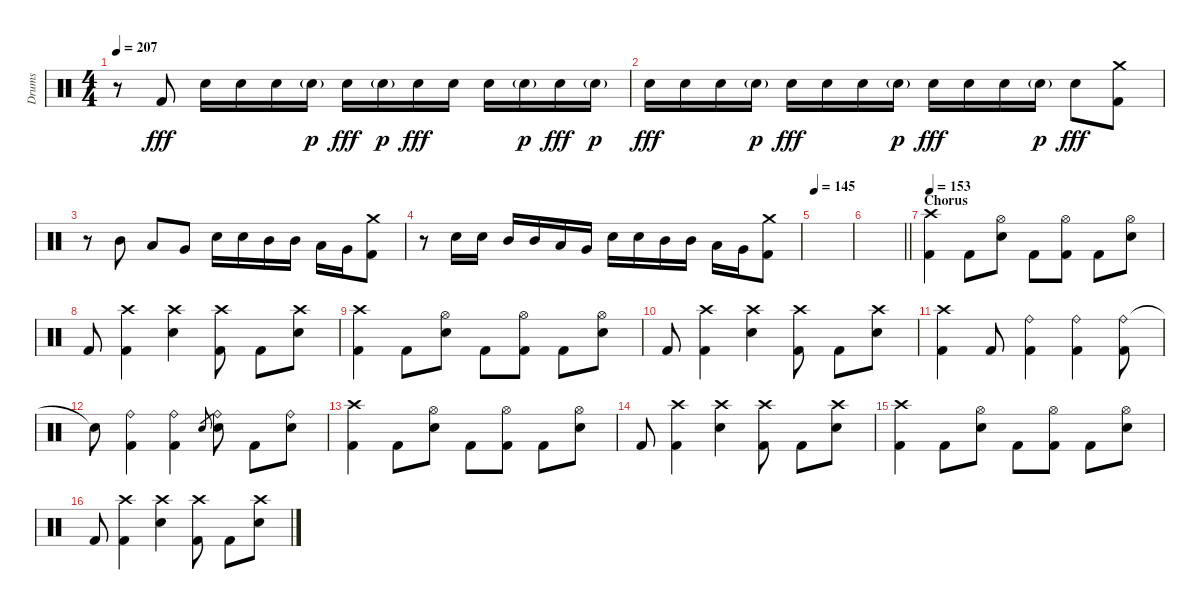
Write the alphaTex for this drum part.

\track ("Drums" "Drums") {instrument percussion}
\staff {score}
\articulation defaults
\ts (4 4)
\tempo 207
\clef neutral
\ks c
r.8{dy fff} "Kick (hit) 2".8 "Electric Snare (hit)".16 "Electric Snare (hit)".16 "Electric Snare (hit)".16 "Electric Snare (hit)"{g}.16{dy p} "Electric Snare (hit)".16{dy fff} "Electric Snare (hit)"{g}.16{dy p} "Electric Snare (hit)".16{dy fff} "Electric Snare (hit)".16 "Electric Snare (hit)".16 "Electric Snare (hit)"{g}.16{dy p} "Electric Snare (hit)".16{dy fff} "Electric Snare (hit)"{g}.16{dy p} |
"Electric Snare (hit)".16{dy fff} "Electric Snare (hit)".16 "Electric Snare (hit)".16 "Electric Snare (hit)"{g}.16{dy p} "Electric Snare (hit)".16{dy fff} "Electric Snare (hit)".16 "Electric Snare (hit)".16 "Electric Snare (hit)"{g}.16{dy p} "Electric Snare (hit)".16{dy fff} "Electric Snare (hit)".16 "Electric Snare (hit)".16 "Electric Snare (hit)"{g}.16{dy p} "Electric Snare (hit)".8{dy fff} ("Crash medium (hit)" "Kick (hit) 2").8 |
r.8 "Mid Tom (hit)".8 "Low Tom (hit)".8 "Very Low Tom (hit)".8 "Electric Snare (hit)".16 "Electric Snare (hit)".16 "Mid Tom (hit)".16 "Mid Tom (hit)".16 "Low Tom (hit)".16 "Very Low Tom (hit)".16 ("Crash medium (hit)" "Kick (hit) 2").8 |
r.8 "Electric Snare (hit)".16 "Electric Snare (hit)".16 "Mid Tom (hit)".16 "Mid Tom (hit)".16 "Low Tom (hit)".16 "Very Low Tom (hit)".16 "Electric Snare (hit)".16 "Electric Snare (hit)".16 "Mid Tom (hit)".16 "Mid Tom (hit)".16 "Low Tom (hit)".16 "Very Low Tom (hit)".16 ("Crash medium (hit)" "Kick (hit) 2").8 |
\tempo 145
|
\barLineRight lightlight
|
\section ("" "Chorus")
\tempo 153
("Crash high (hit)" "Kick (hit) 2").4 "Kick (hit) 2".8 ("Hi-Hat (open)" "Electric Snare (hit)").8 "Kick (hit) 2".8 ("Hi-Hat (open)" "Kick (hit) 2").8 "Kick (hit) 2".8 ("Hi-Hat (open)" "Electric Snare (hit)").8 |
"Kick (hit) 2".8 ("Crash high (hit)" "Kick (hit) 2").4 ("Crash high (hit)" "Electric Snare (hit)").4 ("Crash high (hit)" "Kick (hit) 2").8 "Kick (hit) 2".8 ("Crash high (hit)" "Electric Snare (hit)").8 |
("Crash high (hit)" "Kick (hit) 2").4 "Kick (hit) 2".8 ("Hi-Hat (open)" "Electric Snare (hit)").8 "Kick (hit) 2".8 ("Hi-Hat (open)" "Kick (hit) 2").8 "Kick (hit) 2".8 ("Hi-Hat (open)" "Electric Snare (hit)").8 |
"Kick (hit) 2".8 ("Crash high (hit)" "Kick (hit) 2").4 ("Crash high (hit)" "Electric Snare (hit)").4 ("Crash high (hit)" "Kick (hit) 2").8 "Kick (hit) 2".8 ("Crash high (hit)" "Electric Snare (hit)").8 |
("Crash high (hit)" "Kick (hit) 2").4 "Kick (hit) 2".8 ("Ride (bell)" "Kick (hit) 2").4 ("Ride (bell)" "Kick (hit) 2").4 ("Ride (bell)" "Kick (hit) 2").8 |
"Snare (hit)"{t}.8 ("Ride (bell)" "Kick (hit) 2").4 ("Ride (bell)" "Kick (hit) 2").4 "Electric Snare (hit)".8{gr} ("Ride (bell)" "Electric Snare (hit)").8 "Kick (hit) 2".8 ("Ride (bell)" "Electric Snare (hit)").8 |
("Crash high (hit)" "Kick (hit) 2").4 "Kick (hit) 2".8 ("Hi-Hat (open)" "Electric Snare (hit)").8 "Kick (hit) 2".8 ("Hi-Hat (open)" "Kick (hit) 2").8 "Kick (hit) 2".8 ("Hi-Hat (open)" "Electric Snare (hit)").8 |
"Kick (hit) 2".8 ("Crash high (hit)" "Kick (hit) 2").4 ("Crash high (hit)" "Electric Snare (hit)").4 ("Crash high (hit)" "Kick (hit) 2").8 "Kick (hit) 2".8 ("Crash high (hit)" "Electric Snare (hit)").8 |
("Crash high (hit)" "Kick (hit) 2").4 "Kick (hit) 2".8 ("Hi-Hat (open)" "Electric Snare (hit)").8 "Kick (hit) 2".8 ("Hi-Hat (open)" "Kick (hit) 2").8 "Kick (hit) 2".8 ("Hi-Hat (open)" "Electric Snare (hit)").8 |
"Kick (hit) 2".8 ("Crash high (hit)" "Kick (hit) 2").4 ("Crash high (hit)" "Electric Snare (hit)").4 ("Crash high (hit)" "Kick (hit) 2").8 "Kick (hit) 2".8 ("Crash high (hit)" "Electric Snare (hit)").8
